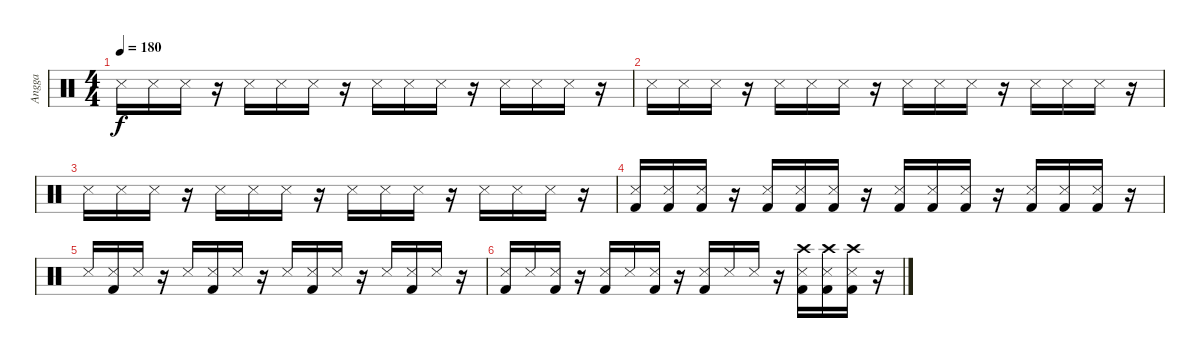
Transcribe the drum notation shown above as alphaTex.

\track ("Angga" "Angga") {instrument percussion}
\staff {score}
\articulation defaults
\ts (4 4)
\tempo 180
\clef neutral
\ks c "Snare (side stick) 3".16{dy f} "Snare (side stick) 3".16 "Snare (side stick) 3".16
r.16 "Snare (side stick) 3".16 "Snare (side stick) 3".16 "Snare (side stick) 3".16 r.16 "Snare (side stick) 3".16 "Snare (side stick) 3".16 "Snare (side stick) 3".16 r.16 "Snare (side stick) 3".16 "Snare (side stick) 3".16 "Snare (side stick) 3".16 r.16 |
"Snare (side stick) 3".16 "Snare (side stick) 3".16 "Snare (side stick) 3".16 r.16 "Snare (side stick) 3".16 "Snare (side stick) 3".16 "Snare (side stick) 3".16 r.16 "Snare (side stick) 3".16 "Snare (side stick) 3".16 "Snare (side stick) 3".16 r.16 "Snare (side stick) 3".16 "Snare (side stick) 3".16 "Snare (side stick) 3".16 r.16 |
"Snare (side stick) 3".16 "Snare (side stick) 3".16 "Snare (side stick) 3".16 r.16 "Snare (side stick) 3".16 "Snare (side stick) 3".16 "Snare (side stick) 3".16 r.16 "Snare (side stick) 3".16 "Snare (side stick) 3".16 "Snare (side stick) 3".16 r.16 "Snare (side stick) 3".16 "Snare (side stick) 3".16 "Snare (side stick) 3".16 r.16 |
("Kick (hit) 2" "Snare (side stick) 3").16 ("Kick (hit) 2" "Snare (side stick) 3").16 ("Kick (hit) 2" "Snare (side stick) 3").16 r.16 ("Kick (hit) 2" "Snare (side stick) 3").16 ("Kick (hit) 2" "Snare (side stick) 3").16 ("Kick (hit) 2" "Snare (side stick) 3").16 r.16 ("Kick (hit) 2" "Snare (side stick) 3").16 ("Kick (hit) 2" "Snare (side stick) 3").16 ("Kick (hit) 2" "Snare (side stick) 3").16 r.16 ("Kick (hit) 2" "Snare (side stick) 3").16 ("Kick (hit) 2" "Snare (side stick) 3").16 ("Kick (hit) 2" "Snare (side stick) 3").16 r.16 |
"Snare (side stick) 3".16 ("Kick (hit) 2" "Snare (side stick) 3").16 "Snare (side stick) 3".16 r.16 "Snare (side stick) 3".16 ("Kick (hit) 2" "Snare (side stick) 3").16 "Snare (side stick) 3".16 r.16 "Snare (side stick) 3".16 ("Kick (hit) 2" "Snare (side stick) 3").16 "Snare (side stick) 3".16 r.16 "Snare (side stick) 3".16 ("Kick (hit) 2" "Snare (side stick) 3").16 "Snare (side stick) 3".16 r.16 |
("Kick (hit) 2" "Snare (side stick) 3").16 "Snare (side stick) 3".16 ("Kick (hit) 2" "Snare (side stick) 3").16 r.16 ("Kick (hit) 2" "Snare (side stick) 3").16 "Snare (side stick) 3".16 ("Kick (hit) 2" "Snare (side stick) 3").16 r.16 ("Kick (hit) 2" "Snare (side stick) 3").16 "Snare (side stick) 3".16 "Snare (side stick) 3".16 r.16 ("Kick (hit) 2" "Snare (side stick) 3" "Crash high (hit)").16 ("Kick (hit) 2" "Snare (side stick) 3" "Crash high (hit)").16 ("Kick (hit) 2" "Snare (side stick) 3" "Crash high (hit)").16 r.16
